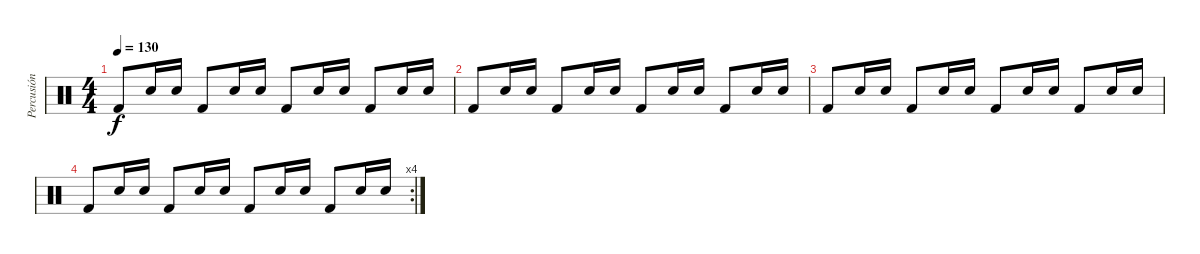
\track ("Percusión" "Percusión") {instrument percussion}
\staff {score}
\articulation defaults
\ts (4 4)
\tempo 130
\clef neutral
\ks c "Kick (hit) 2".8{dy f} "Snare (hit) 2".16 "Snare (hit) 2".16 "Kick (hit) 2".8 "Snare (hit) 2".16 "Snare (hit) 2".16 "Kick (hit) 2".8 "Snare (hit) 2".16 "Snare (hit) 2".16 "Kick (hit) 2".8 "Snare (hit) 2".16 "Snare (hit) 2".16
|
"Kick (hit) 2".8 "Snare (hit) 2".16 "Snare (hit) 2".16 "Kick (hit) 2".8 "Snare (hit) 2".16 "Snare (hit) 2".16 "Kick (hit) 2".8 "Snare (hit) 2".16 "Snare (hit) 2".16 "Kick (hit) 2".8 "Snare (hit) 2".16 "Snare (hit) 2".16 |
"Kick (hit) 2".8 "Snare (hit) 2".16 "Snare (hit) 2".16 "Kick (hit) 2".8 "Snare (hit) 2".16 "Snare (hit) 2".16 "Kick (hit) 2".8 "Snare (hit) 2".16 "Snare (hit) 2".16 "Kick (hit) 2".8 "Snare (hit) 2".16 "Snare (hit) 2".16 |
\rc 4 "Kick (hit) 2".8 "Snare (hit) 2".16 "Snare (hit) 2".16 "Kick (hit) 2".8 "Snare (hit) 2".16 "Snare (hit) 2".16 "Kick (hit) 2".8 "Snare (hit) 2".16 "Snare (hit) 2".16 "Kick (hit) 2".8 "Snare (hit) 2".16 "Snare (hit) 2".16
